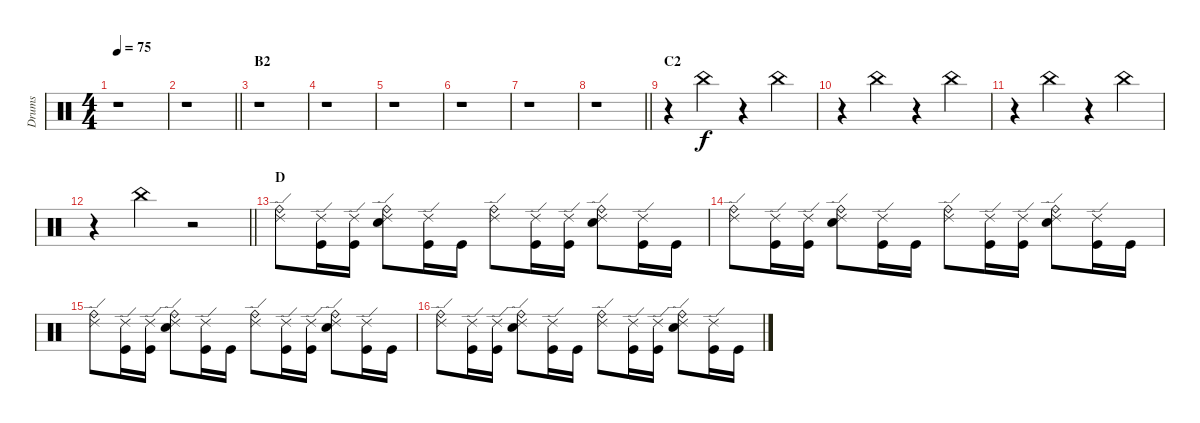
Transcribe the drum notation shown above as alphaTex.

\track ("Drums" "Drums") {instrument percussion}
\staff {score}
\articulation defaults
\ts (4 4)
\tempo 75
\clef neutral
\ks c
r.1{dy f} |
\barLineRight lightlight
r.1 |
\section ("" "B2")
r.1 |
r.1 |
r.1 |
r.1 |
r.1 |
\barLineRight lightlight
r.1 |
\section ("" "C2")
r.4 "China (hit)".4 r.4 "China (hit)".4 |
r.4 "China (hit)".4 r.4 "China (hit)".4 |
r.4 "China (hit)".4 r.4 "China (hit)".4 |
\barLineRight lightlight
r.4 "China (hit)".4 r.2 |
\section ("" "D")
("Ride (bell)" "Ride (edge) 2").8 ("Ride (edge) 2" "Kick (hit)").16 ("Ride (edge) 2" "Kick (hit)").16 ("Ride (bell)" "Ride (edge) 2" "Snare (hit) 2").8 ("Ride (edge) 2" "Kick (hit)").16 "Kick (hit)".16 ("Ride (bell)" "Ride (edge) 2").8 ("Ride (edge) 2" "Kick (hit)").16 ("Ride (edge) 2" "Kick (hit)").16 ("Ride (bell)" "Ride (edge) 2" "Snare (hit) 2").8 ("Ride (edge) 2" "Kick (hit)").16 "Kick (hit)".16 |
("Ride (bell)" "Ride (edge) 2").8 ("Ride (edge) 2" "Kick (hit)").16 ("Ride (edge) 2" "Kick (hit)").16 ("Ride (bell)" "Ride (edge) 2" "Snare (hit) 2").8 ("Ride (edge) 2" "Kick (hit)").16 "Kick (hit)".16 ("Ride (bell)" "Ride (edge) 2").8 ("Ride (edge) 2" "Kick (hit)").16 ("Ride (edge) 2" "Kick (hit)").16 ("Ride (bell)" "Ride (edge) 2" "Snare (hit) 2").8 ("Ride (edge) 2" "Kick (hit)").16 "Kick (hit)".16 |
("Ride (bell)" "Ride (edge) 2").8 ("Ride (edge) 2" "Kick (hit)").16 ("Ride (edge) 2" "Kick (hit)").16 ("Ride (bell)" "Ride (edge) 2" "Snare (hit) 2").8 ("Ride (edge) 2" "Kick (hit)").16 "Kick (hit)".16 ("Ride (bell)" "Ride (edge) 2").8 ("Ride (edge) 2" "Kick (hit)").16 ("Ride (edge) 2" "Kick (hit)").16 ("Ride (bell)" "Ride (edge) 2" "Snare (hit) 2").8 ("Ride (edge) 2" "Kick (hit)").16 "Kick (hit)".16 |
("Ride (bell)" "Ride (edge) 2").8 ("Ride (edge) 2" "Kick (hit)").16 ("Ride (edge) 2" "Kick (hit)").16 ("Ride (bell)" "Ride (edge) 2" "Snare (hit) 2").8 ("Ride (edge) 2" "Kick (hit)").16 "Kick (hit)".16 ("Ride (bell)" "Ride (edge) 2").8 ("Ride (edge) 2" "Kick (hit)").16 ("Ride (edge) 2" "Kick (hit)").16 ("Ride (bell)" "Ride (edge) 2" "Snare (hit) 2").8 ("Ride (edge) 2" "Kick (hit)").16 "Kick (hit)".16
